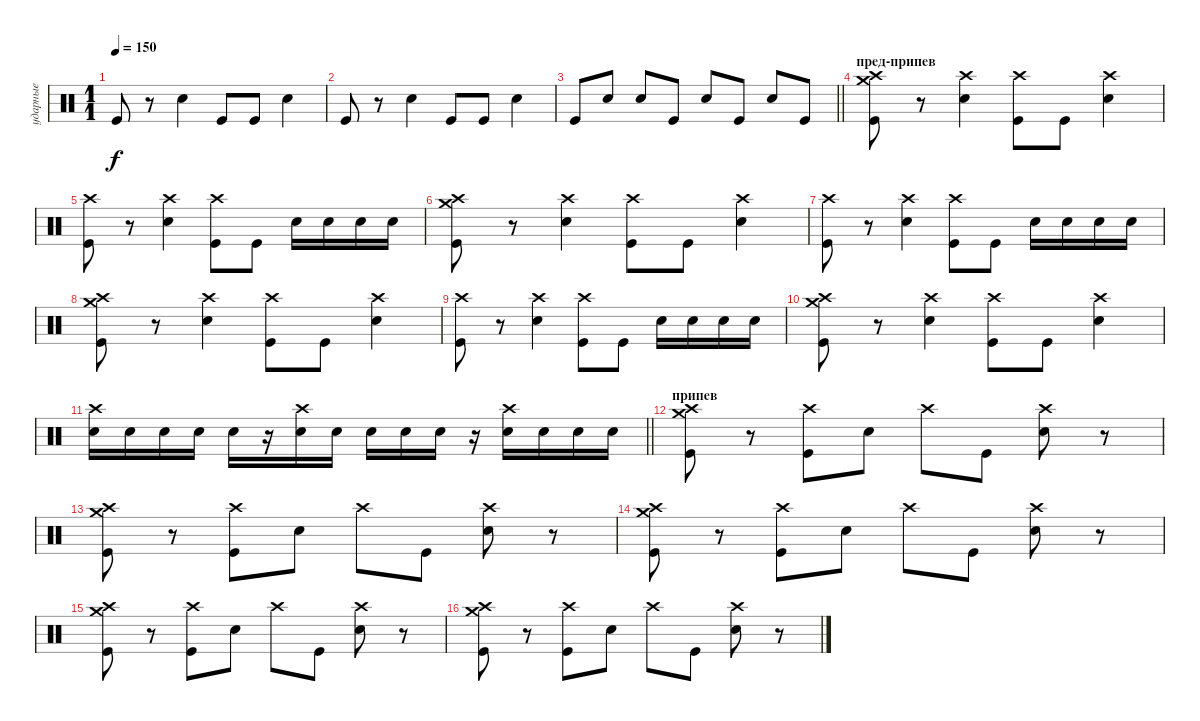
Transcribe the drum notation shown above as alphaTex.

\track ("ударные" "ударные") {instrument percussion}
\staff {score}
\articulation defaults
\ts (1 1)
\tempo 150
\clef neutral
\ks c "Kick (hit)".8{dy f}
r.8 "Snare (hit) 2".4 "Kick (hit)".8 "Kick (hit)".8 "Snare (hit) 2".4 |
"Kick (hit)".8 r.8 "Snare (hit) 2".4 "Kick (hit)".8 "Kick (hit)".8 "Snare (hit) 2".4 |
\barLineRight lightlight "Kick (hit)".8 "Snare (hit) 2".8 "Snare (hit) 2".8 "Kick (hit)".8 "Snare (hit) 2".8 "Kick (hit)".8 "Snare (hit) 2".8 "Kick (hit)".8
|
\section ("" "пред-припев")
("Crash high (hit)" "Crash medium (hit)" "Kick (hit)").8 r.8 ("Crash high (hit)" "Snare (hit) 2").4 ("Crash high (hit)" "Kick (hit)").8 "Kick (hit)".8 ("Crash high (hit)" "Snare (hit) 2").4 |
("Crash high (hit)" "Kick (hit)").8 r.8 ("Crash high (hit)" "Snare (hit) 2").4 ("Crash high (hit)" "Kick (hit)").8 "Kick (hit)".8 "Snare (hit) 2".16 "Snare (hit) 2".16 "Snare (hit) 2".16 "Snare (hit) 2".16 |
("Crash high (hit)" "Crash medium (hit)" "Kick (hit)").8 r.8 ("Crash high (hit)" "Snare (hit) 2").4 ("Crash high (hit)" "Kick (hit)").8 "Kick (hit)".8 ("Crash high (hit)" "Snare (hit) 2").4 |
("Crash high (hit)" "Kick (hit)").8 r.8 ("Crash high (hit)" "Snare (hit) 2").4 ("Crash high (hit)" "Kick (hit)").8 "Kick (hit)".8 "Snare (hit) 2".16 "Snare (hit) 2".16 "Snare (hit) 2".16 "Snare (hit) 2".16 |
("Crash high (hit)" "Crash medium (hit)" "Kick (hit)").8 r.8 ("Crash high (hit)" "Snare (hit) 2").4 ("Crash high (hit)" "Kick (hit)").8 "Kick (hit)".8 ("Crash high (hit)" "Snare (hit) 2").4 |
("Crash high (hit)" "Kick (hit)").8 r.8 ("Crash high (hit)" "Snare (hit) 2").4 ("Crash high (hit)" "Kick (hit)").8 "Kick (hit)".8 "Snare (hit) 2".16 "Snare (hit) 2".16 "Snare (hit) 2".16 "Snare (hit) 2".16 |
("Crash high (hit)" "Crash medium (hit)" "Kick (hit)").8 r.8 ("Crash high (hit)" "Snare (hit) 2").4 ("Crash high (hit)" "Kick (hit)").8 "Kick (hit)".8 ("Crash high (hit)" "Snare (hit) 2").4 |
\barLineRight lightlight
("Crash high (hit)" "Snare (hit) 2").16 "Snare (hit) 2".16 "Snare (hit) 2".16 "Snare (hit) 2".16 "Snare (hit) 2".16 r.16 ("Crash high (hit)" "Snare (hit) 2").16 "Snare (hit) 2".16 "Snare (hit) 2".16 "Snare (hit) 2".16 "Snare (hit) 2".16 r.16 ("Crash high (hit)" "Snare (hit) 2").16 "Snare (hit) 2".16 "Snare (hit) 2".16 "Snare (hit) 2".16 |
\section ("" "припев")
("Crash high (hit)" "Crash medium (hit)" "Kick (hit)").8 r.8 ("Crash high (hit)" "Kick (hit)").8 "Snare (hit) 2".8 "Crash high (hit)".8 "Kick (hit)".8 ("Crash high (hit)" "Snare (hit) 2").8 r.8 |
("Crash high (hit)" "Crash medium (hit)" "Kick (hit)").8 r.8 ("Crash high (hit)" "Kick (hit)").8 "Snare (hit) 2".8 "Crash high (hit)".8 "Kick (hit)".8 ("Crash high (hit)" "Snare (hit) 2").8 r.8 |
("Crash high (hit)" "Crash medium (hit)" "Kick (hit)").8 r.8 ("Crash high (hit)" "Kick (hit)").8 "Snare (hit) 2".8 "Crash high (hit)".8 "Kick (hit)".8 ("Crash high (hit)" "Snare (hit) 2").8 r.8 |
("Crash high (hit)" "Crash medium (hit)" "Kick (hit)").8 r.8 ("Crash high (hit)" "Kick (hit)").8 "Snare (hit) 2".8 "Crash high (hit)".8 "Kick (hit)".8 ("Crash high (hit)" "Snare (hit) 2").8 r.8 |
("Crash high (hit)" "Crash medium (hit)" "Kick (hit)").8 r.8 ("Crash high (hit)" "Kick (hit)").8 "Snare (hit) 2".8 "Crash high (hit)".8 "Kick (hit)".8 ("Crash high (hit)" "Snare (hit) 2").8 r.8
